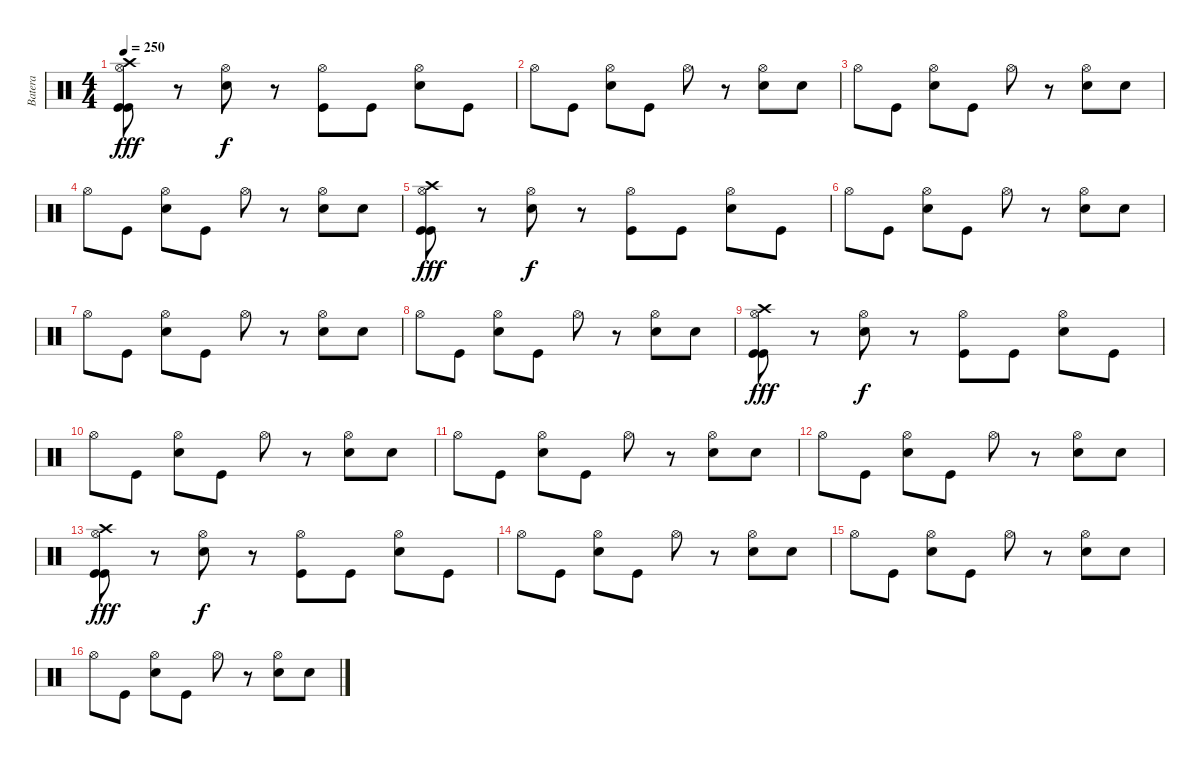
\track ("Batera" "Batera") {instrument percussion}
\staff {score}
\articulation defaults
\ts (4 4)
\tempo 250
\clef neutral
\ks c
("Hi-Hat (open)" "Crash high (hit)" "Kick (hit)" "Kick (hit)").8{dy fff} r.8 ("Hi-Hat (open)" "Electric Snare (hit)").8{dy f} r.8 ("Hi-Hat (open)" "Kick (hit)").8 "Kick (hit)".8 ("Hi-Hat (open)" "Electric Snare (hit)").8 "Kick (hit)".8 |
"Hi-Hat (open)".8 "Kick (hit)".8 ("Hi-Hat (open)" "Electric Snare (hit)").8 "Kick (hit)".8 "Hi-Hat (open)".8 r.8 ("Hi-Hat (open)" "Electric Snare (hit)").8 "Electric Snare (hit)".8 |
"Hi-Hat (open)".8 "Kick (hit)".8 ("Hi-Hat (open)" "Electric Snare (hit)").8 "Kick (hit)".8 "Hi-Hat (open)".8 r.8 ("Hi-Hat (open)" "Electric Snare (hit)").8 "Electric Snare (hit)".8 |
"Hi-Hat (open)".8 "Kick (hit)".8 ("Hi-Hat (open)" "Electric Snare (hit)").8 "Kick (hit)".8 "Hi-Hat (open)".8 r.8 ("Hi-Hat (open)" "Electric Snare (hit)").8 "Electric Snare (hit)".8 |
("Hi-Hat (open)" "Crash high (hit)" "Kick (hit)" "Kick (hit)").8{dy fff} r.8 ("Hi-Hat (open)" "Electric Snare (hit)").8{dy f} r.8 ("Hi-Hat (open)" "Kick (hit)").8 "Kick (hit)".8 ("Hi-Hat (open)" "Electric Snare (hit)").8 "Kick (hit)".8 |
"Hi-Hat (open)".8 "Kick (hit)".8 ("Hi-Hat (open)" "Electric Snare (hit)").8 "Kick (hit)".8 "Hi-Hat (open)".8 r.8 ("Hi-Hat (open)" "Electric Snare (hit)").8 "Electric Snare (hit)".8 |
"Hi-Hat (open)".8 "Kick (hit)".8 ("Hi-Hat (open)" "Electric Snare (hit)").8 "Kick (hit)".8 "Hi-Hat (open)".8 r.8 ("Hi-Hat (open)" "Electric Snare (hit)").8 "Electric Snare (hit)".8 |
"Hi-Hat (open)".8 "Kick (hit)".8 ("Hi-Hat (open)" "Electric Snare (hit)").8 "Kick (hit)".8 "Hi-Hat (open)".8 r.8 ("Hi-Hat (open)" "Electric Snare (hit)").8 "Electric Snare (hit)".8 |
("Hi-Hat (open)" "Crash high (hit)" "Kick (hit)" "Kick (hit)").8{dy fff} r.8 ("Hi-Hat (open)" "Electric Snare (hit)").8{dy f} r.8 ("Hi-Hat (open)" "Kick (hit)").8 "Kick (hit)".8 ("Hi-Hat (open)" "Electric Snare (hit)").8 "Kick (hit)".8 |
"Hi-Hat (open)".8 "Kick (hit)".8 ("Hi-Hat (open)" "Electric Snare (hit)").8 "Kick (hit)".8 "Hi-Hat (open)".8 r.8 ("Hi-Hat (open)" "Electric Snare (hit)").8 "Electric Snare (hit)".8 |
"Hi-Hat (open)".8 "Kick (hit)".8 ("Hi-Hat (open)" "Electric Snare (hit)").8 "Kick (hit)".8 "Hi-Hat (open)".8 r.8 ("Hi-Hat (open)" "Electric Snare (hit)").8 "Electric Snare (hit)".8 |
"Hi-Hat (open)".8 "Kick (hit)".8 ("Hi-Hat (open)" "Electric Snare (hit)").8 "Kick (hit)".8 "Hi-Hat (open)".8 r.8 ("Hi-Hat (open)" "Electric Snare (hit)").8 "Electric Snare (hit)".8 |
("Hi-Hat (open)" "Crash high (hit)" "Kick (hit)" "Kick (hit)").8{dy fff} r.8 ("Hi-Hat (open)" "Electric Snare (hit)").8{dy f} r.8 ("Hi-Hat (open)" "Kick (hit)").8 "Kick (hit)".8 ("Hi-Hat (open)" "Electric Snare (hit)").8 "Kick (hit)".8 |
"Hi-Hat (open)".8 "Kick (hit)".8 ("Hi-Hat (open)" "Electric Snare (hit)").8 "Kick (hit)".8 "Hi-Hat (open)".8 r.8 ("Hi-Hat (open)" "Electric Snare (hit)").8 "Electric Snare (hit)".8 |
"Hi-Hat (open)".8 "Kick (hit)".8 ("Hi-Hat (open)" "Electric Snare (hit)").8 "Kick (hit)".8 "Hi-Hat (open)".8 r.8 ("Hi-Hat (open)" "Electric Snare (hit)").8 "Electric Snare (hit)".8 |
"Hi-Hat (open)".8 "Kick (hit)".8 ("Hi-Hat (open)" "Electric Snare (hit)").8 "Kick (hit)".8 "Hi-Hat (open)".8 r.8 ("Hi-Hat (open)" "Electric Snare (hit)").8 "Electric Snare (hit)".8
